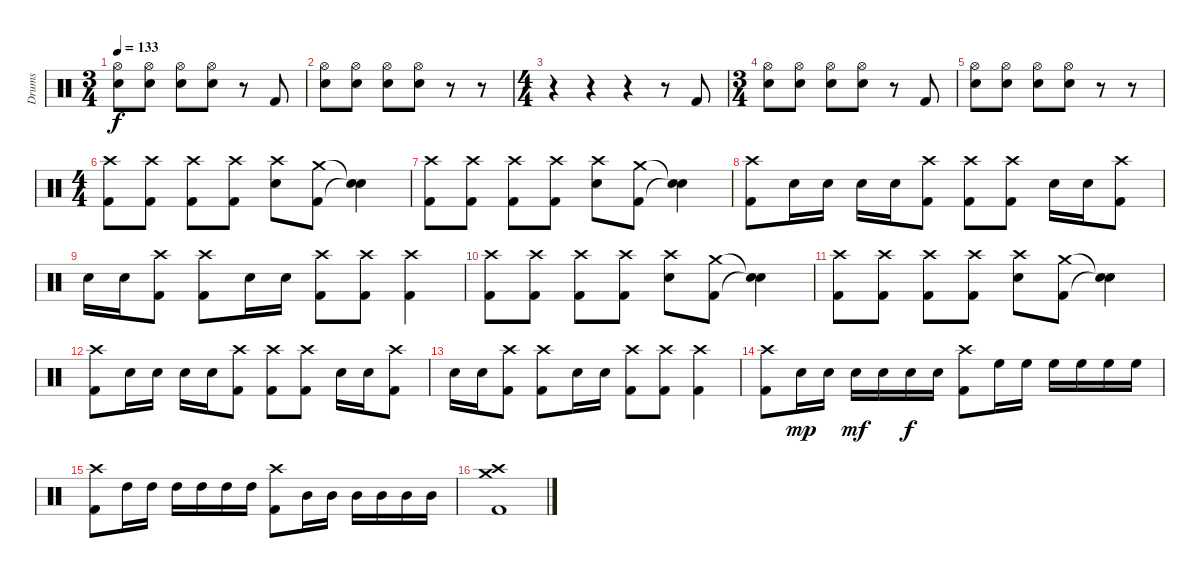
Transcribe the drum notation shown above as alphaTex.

\track ("Drums" "Drums") {instrument percussion}
\staff {score}
\articulation defaults
\ts (3 4)
\tempo 133
\clef neutral
\ks c
("Hi-Hat (open)" "Electric Snare (hit)").8{dy f} ("Hi-Hat (open)" "Electric Snare (hit)").8 ("Hi-Hat (open)" "Electric Snare (hit)").8 ("Hi-Hat (open)" "Electric Snare (hit)").8 r.8 "Kick (hit) 2".8 |
("Hi-Hat (open)" "Electric Snare (hit)").8 ("Hi-Hat (open)" "Electric Snare (hit)").8 ("Hi-Hat (open)" "Electric Snare (hit)").8 ("Hi-Hat (open)" "Electric Snare (hit)").8 r.8 r.8 |
\ts (4 4)
r.4 r.4 r.4 r.8 "Kick (hit) 2".8 |
\ts (3 4)
("Hi-Hat (open)" "Electric Snare (hit)").8 ("Hi-Hat (open)" "Electric Snare (hit)").8 ("Hi-Hat (open)" "Electric Snare (hit)").8 ("Hi-Hat (open)" "Electric Snare (hit)").8 r.8 "Kick (hit) 2".8 |
("Hi-Hat (open)" "Electric Snare (hit)").8 ("Hi-Hat (open)" "Electric Snare (hit)").8 ("Hi-Hat (open)" "Electric Snare (hit)").8 ("Hi-Hat (open)" "Electric Snare (hit)").8 r.8 r.8 |
\ts (4 4)
("Crash high (hit)" "Kick (hit) 2").8 ("Crash high (hit)" "Kick (hit) 2").8 ("Crash high (hit)" "Kick (hit) 2").8 ("Crash high (hit)" "Kick (hit) 2").8 ("Crash high (hit)" "Electric Snare (hit)").8 ("Crash medium (hit)" "Kick (hit) 2").8 ("Snare (hit)"{t} "Snare (hit)"{t}).4 |
("Crash high (hit)" "Kick (hit) 2").8 ("Crash high (hit)" "Kick (hit) 2").8 ("Crash high (hit)" "Kick (hit) 2").8 ("Crash high (hit)" "Kick (hit) 2").8 ("Crash high (hit)" "Electric Snare (hit)").8 ("Crash medium (hit)" "Kick (hit) 2").8 ("Snare (hit)"{t} "Snare (hit)"{t}).4 |
("Crash high (hit)" "Kick (hit) 2").8 "Electric Snare (hit)".16 "Electric Snare (hit)".16 "Electric Snare (hit)".16 "Electric Snare (hit)".16 ("Crash high (hit)" "Kick (hit) 2").8 ("Crash high (hit)" "Kick (hit) 2").8 ("Crash high (hit)" "Kick (hit) 2").8 "Electric Snare (hit)".16 "Electric Snare (hit)".16 ("Crash high (hit)" "Kick (hit) 2").8 |
"Electric Snare (hit)".16 "Electric Snare (hit)".16 ("Crash high (hit)" "Kick (hit) 2").8 ("Crash high (hit)" "Kick (hit) 2").8 "Electric Snare (hit)".16 "Electric Snare (hit)".16 ("Crash high (hit)" "Kick (hit) 2").8 ("Crash high (hit)" "Kick (hit) 2").8 ("Crash high (hit)" "Kick (hit) 2").4 |
("Crash high (hit)" "Kick (hit) 2").8 ("Crash high (hit)" "Kick (hit) 2").8 ("Crash high (hit)" "Kick (hit) 2").8 ("Crash high (hit)" "Kick (hit) 2").8 ("Crash high (hit)" "Electric Snare (hit)").8 ("Crash medium (hit)" "Kick (hit) 2").8 ("Snare (hit)"{t} "Snare (hit)"{t}).4 |
("Crash high (hit)" "Kick (hit) 2").8 ("Crash high (hit)" "Kick (hit) 2").8 ("Crash high (hit)" "Kick (hit) 2").8 ("Crash high (hit)" "Kick (hit) 2").8 ("Crash high (hit)" "Electric Snare (hit)").8 ("Crash medium (hit)" "Kick (hit) 2").8 ("Snare (hit)"{t} "Snare (hit)"{t}).4 |
("Crash high (hit)" "Kick (hit) 2").8 "Electric Snare (hit)".16 "Electric Snare (hit)".16 "Electric Snare (hit)".16 "Electric Snare (hit)".16 ("Crash high (hit)" "Kick (hit) 2").8 ("Crash high (hit)" "Kick (hit) 2").8 ("Crash high (hit)" "Kick (hit) 2").8 "Electric Snare (hit)".16 "Electric Snare (hit)".16 ("Crash high (hit)" "Kick (hit) 2").8 |
"Electric Snare (hit)".16 "Electric Snare (hit)".16 ("Crash high (hit)" "Kick (hit) 2").8 ("Crash high (hit)" "Kick (hit) 2").8 "Electric Snare (hit)".16 "Electric Snare (hit)".16 ("Crash high (hit)" "Kick (hit) 2").8 ("Crash high (hit)" "Kick (hit) 2").8 ("Crash high (hit)" "Kick (hit) 2").4 |
("Crash high (hit)" "Kick (hit) 2").8 "Electric Snare (hit)".16{dy mp} "Electric Snare (hit)".16 "Electric Snare (hit)".16{dy mf} "Electric Snare (hit)".16 "Electric Snare (hit)".16{dy f} "Electric Snare (hit)".16 ("Crash high (hit)" "Kick (hit) 2").8 "High Floor Tom (hit)".16 "High Floor Tom (hit)".16 "High Floor Tom (hit)".16 "High Floor Tom (hit)".16 "High Floor Tom (hit)".16 "High Floor Tom (hit)".16 |
("Crash high (hit)" "Kick (hit) 2").8 "High Tom (hit)".16 "High Tom (hit)".16 "High Tom (hit)".16 "High Tom (hit)".16 "High Tom (hit)".16 "High Tom (hit)".16 ("Crash high (hit)" "Kick (hit) 2").8 "Mid Tom (hit)".16 "Mid Tom (hit)".16 "Mid Tom (hit)".16 "Mid Tom (hit)".16 "Mid Tom (hit)".16 "Mid Tom (hit)".16 |
("Crash high (hit)" "Crash medium (hit)" "Kick (hit) 2").1
